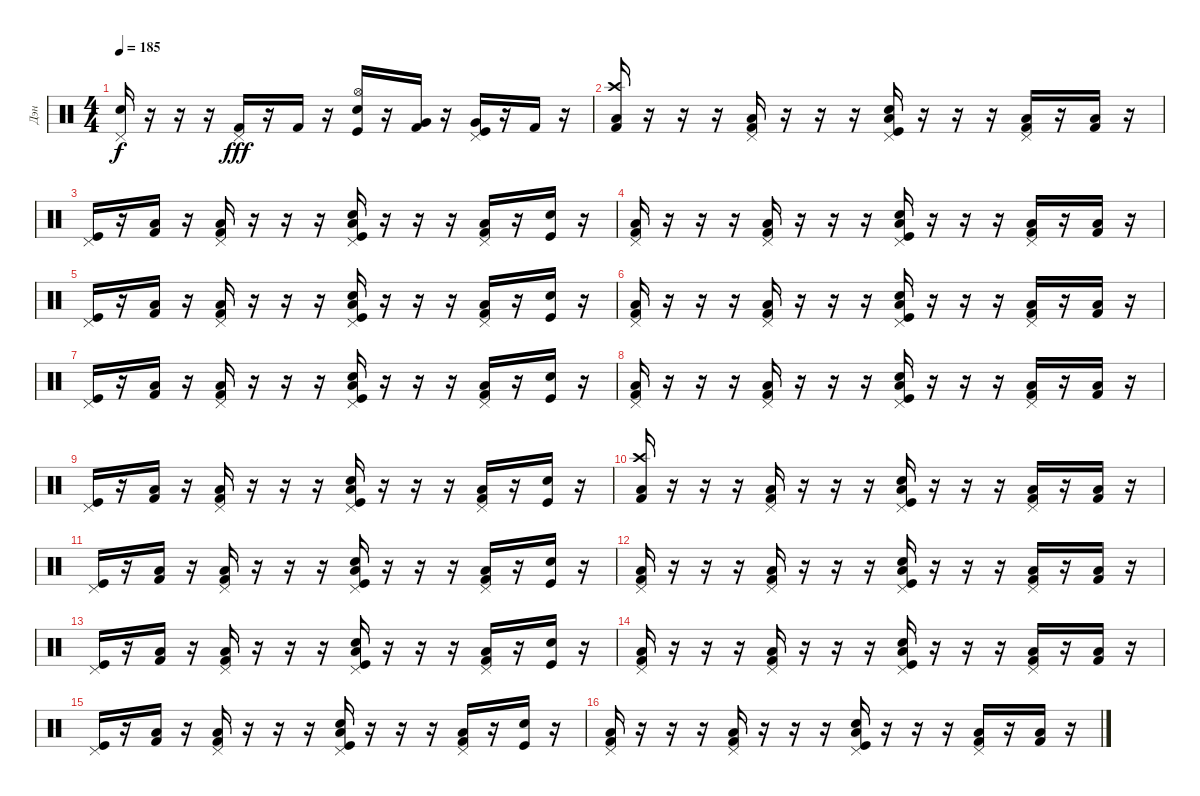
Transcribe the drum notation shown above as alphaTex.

\track ("Дэн" "Дэн") {instrument percussion}
\staff {score}
\articulation defaults
\ts (4 4)
\tempo 185
\clef neutral
\ks c
("Pedal Hi-Hat (hit)" "Electric Snare (hit)").16{dy f} r.16 r.16 r.16 ("Pedal Hi-Hat (hit)" "Kick (hit) 2").16{dy fff} r.16 "Kick (hit) 2".16 r.16 ("Hi-Hat (open)" "Electric Snare (hit)" "Kick (hit)").16 r.16 ("Very Low Tom (hit)" "Kick (hit) 2").16 r.16 ("Pedal Hi-Hat (hit)" "Very Low Tom (hit)" "Kick (hit)").16 r.16 "Kick (hit) 2".16 r.16 |
("Crash high (hit)" "Low Floor Tom (hit)" "Kick (hit) 2").16 r.16 r.16 r.16 ("Pedal Hi-Hat (hit)" "Low Floor Tom (hit)" "Kick (hit) 2").16 r.16 r.16 r.16 ("Pedal Hi-Hat (hit)" "Electric Snare (hit)" "Low Floor Tom (hit)" "Kick (hit)").16 r.16 r.16 r.16 ("Pedal Hi-Hat (hit)" "Low Floor Tom (hit)" "Kick (hit) 2").16 r.16 ("Low Floor Tom (hit)" "Kick (hit) 2").16 r.16 |
("Pedal Hi-Hat (hit)" "Kick (hit)").16 r.16 ("Low Floor Tom (hit)" "Kick (hit) 2").16 r.16 ("Pedal Hi-Hat (hit)" "Low Floor Tom (hit)" "Kick (hit) 2").16 r.16 r.16 r.16 ("Pedal Hi-Hat (hit)" "Electric Snare (hit)" "Low Floor Tom (hit)" "Kick (hit)").16 r.16 r.16 r.16 ("Pedal Hi-Hat (hit)" "Low Floor Tom (hit)" "Kick (hit) 2").16 r.16 ("Electric Snare (hit)" "Kick (hit)").16 r.16 |
("Pedal Hi-Hat (hit)" "Low Floor Tom (hit)" "Kick (hit) 2").16 r.16 r.16 r.16 ("Pedal Hi-Hat (hit)" "Low Floor Tom (hit)" "Kick (hit) 2").16 r.16 r.16 r.16 ("Pedal Hi-Hat (hit)" "Electric Snare (hit)" "Low Floor Tom (hit)" "Kick (hit)").16 r.16 r.16 r.16 ("Pedal Hi-Hat (hit)" "Low Floor Tom (hit)" "Kick (hit) 2").16 r.16 ("Low Floor Tom (hit)" "Kick (hit) 2").16 r.16 |
("Pedal Hi-Hat (hit)" "Kick (hit)").16 r.16 ("Low Floor Tom (hit)" "Kick (hit) 2").16 r.16 ("Pedal Hi-Hat (hit)" "Low Floor Tom (hit)" "Kick (hit) 2").16 r.16 r.16 r.16 ("Pedal Hi-Hat (hit)" "Electric Snare (hit)" "Low Floor Tom (hit)" "Kick (hit)").16 r.16 r.16 r.16 ("Pedal Hi-Hat (hit)" "Low Floor Tom (hit)" "Kick (hit) 2").16 r.16 ("Electric Snare (hit)" "Kick (hit)").16 r.16 |
("Pedal Hi-Hat (hit)" "Low Floor Tom (hit)" "Kick (hit) 2").16 r.16 r.16 r.16 ("Pedal Hi-Hat (hit)" "Low Floor Tom (hit)" "Kick (hit) 2").16 r.16 r.16 r.16 ("Pedal Hi-Hat (hit)" "Electric Snare (hit)" "Low Floor Tom (hit)" "Kick (hit)").16 r.16 r.16 r.16 ("Pedal Hi-Hat (hit)" "Low Floor Tom (hit)" "Kick (hit) 2").16 r.16 ("Low Floor Tom (hit)" "Kick (hit) 2").16 r.16 |
("Pedal Hi-Hat (hit)" "Kick (hit)").16 r.16 ("Low Floor Tom (hit)" "Kick (hit) 2").16 r.16 ("Pedal Hi-Hat (hit)" "Low Floor Tom (hit)" "Kick (hit) 2").16 r.16 r.16 r.16 ("Pedal Hi-Hat (hit)" "Electric Snare (hit)" "Low Floor Tom (hit)" "Kick (hit)").16 r.16 r.16 r.16 ("Pedal Hi-Hat (hit)" "Low Floor Tom (hit)" "Kick (hit) 2").16 r.16 ("Electric Snare (hit)" "Kick (hit)").16 r.16 |
("Pedal Hi-Hat (hit)" "Low Floor Tom (hit)" "Kick (hit) 2").16 r.16 r.16 r.16 ("Pedal Hi-Hat (hit)" "Low Floor Tom (hit)" "Kick (hit) 2").16 r.16 r.16 r.16 ("Pedal Hi-Hat (hit)" "Electric Snare (hit)" "Low Floor Tom (hit)" "Kick (hit)").16 r.16 r.16 r.16 ("Pedal Hi-Hat (hit)" "Low Floor Tom (hit)" "Kick (hit) 2").16 r.16 ("Low Floor Tom (hit)" "Kick (hit) 2").16 r.16 |
("Pedal Hi-Hat (hit)" "Kick (hit)").16 r.16 ("Low Floor Tom (hit)" "Kick (hit) 2").16 r.16 ("Pedal Hi-Hat (hit)" "Low Floor Tom (hit)" "Kick (hit) 2").16 r.16 r.16 r.16 ("Pedal Hi-Hat (hit)" "Electric Snare (hit)" "Low Floor Tom (hit)" "Kick (hit)").16 r.16 r.16 r.16 ("Pedal Hi-Hat (hit)" "Low Floor Tom (hit)" "Kick (hit) 2").16 r.16 ("Electric Snare (hit)" "Kick (hit)").16 r.16 |
("Crash high (hit)" "Low Floor Tom (hit)" "Kick (hit) 2").16 r.16 r.16 r.16 ("Pedal Hi-Hat (hit)" "Low Floor Tom (hit)" "Kick (hit) 2").16 r.16 r.16 r.16 ("Pedal Hi-Hat (hit)" "Electric Snare (hit)" "Low Floor Tom (hit)" "Kick (hit)").16 r.16 r.16 r.16 ("Pedal Hi-Hat (hit)" "Low Floor Tom (hit)" "Kick (hit) 2").16 r.16 ("Low Floor Tom (hit)" "Kick (hit) 2").16 r.16 |
("Pedal Hi-Hat (hit)" "Kick (hit)").16 r.16 ("Low Floor Tom (hit)" "Kick (hit) 2").16 r.16 ("Pedal Hi-Hat (hit)" "Low Floor Tom (hit)" "Kick (hit) 2").16 r.16 r.16 r.16 ("Pedal Hi-Hat (hit)" "Electric Snare (hit)" "Low Floor Tom (hit)" "Kick (hit)").16 r.16 r.16 r.16 ("Pedal Hi-Hat (hit)" "Low Floor Tom (hit)" "Kick (hit) 2").16 r.16 ("Electric Snare (hit)" "Kick (hit)").16 r.16 |
("Pedal Hi-Hat (hit)" "Low Floor Tom (hit)" "Kick (hit) 2").16 r.16 r.16 r.16 ("Pedal Hi-Hat (hit)" "Low Floor Tom (hit)" "Kick (hit) 2").16 r.16 r.16 r.16 ("Pedal Hi-Hat (hit)" "Electric Snare (hit)" "Low Floor Tom (hit)" "Kick (hit)").16 r.16 r.16 r.16 ("Pedal Hi-Hat (hit)" "Low Floor Tom (hit)" "Kick (hit) 2").16 r.16 ("Low Floor Tom (hit)" "Kick (hit) 2").16 r.16 |
("Pedal Hi-Hat (hit)" "Kick (hit)").16 r.16 ("Low Floor Tom (hit)" "Kick (hit) 2").16 r.16 ("Pedal Hi-Hat (hit)" "Low Floor Tom (hit)" "Kick (hit) 2").16 r.16 r.16 r.16 ("Pedal Hi-Hat (hit)" "Electric Snare (hit)" "Low Floor Tom (hit)" "Kick (hit)").16 r.16 r.16 r.16 ("Pedal Hi-Hat (hit)" "Low Floor Tom (hit)" "Kick (hit) 2").16 r.16 ("Electric Snare (hit)" "Kick (hit)").16 r.16 |
("Pedal Hi-Hat (hit)" "Low Floor Tom (hit)" "Kick (hit) 2").16 r.16 r.16 r.16 ("Pedal Hi-Hat (hit)" "Low Floor Tom (hit)" "Kick (hit) 2").16 r.16 r.16 r.16 ("Pedal Hi-Hat (hit)" "Electric Snare (hit)" "Low Floor Tom (hit)" "Kick (hit)").16 r.16 r.16 r.16 ("Pedal Hi-Hat (hit)" "Low Floor Tom (hit)" "Kick (hit) 2").16 r.16 ("Low Floor Tom (hit)" "Kick (hit) 2").16 r.16 |
("Pedal Hi-Hat (hit)" "Kick (hit)").16 r.16 ("Low Floor Tom (hit)" "Kick (hit) 2").16 r.16 ("Pedal Hi-Hat (hit)" "Low Floor Tom (hit)" "Kick (hit) 2").16 r.16 r.16 r.16 ("Pedal Hi-Hat (hit)" "Electric Snare (hit)" "Low Floor Tom (hit)" "Kick (hit)").16 r.16 r.16 r.16 ("Pedal Hi-Hat (hit)" "Low Floor Tom (hit)" "Kick (hit) 2").16 r.16 ("Electric Snare (hit)" "Kick (hit)").16 r.16 |
("Pedal Hi-Hat (hit)" "Low Floor Tom (hit)" "Kick (hit) 2").16 r.16 r.16 r.16 ("Pedal Hi-Hat (hit)" "Low Floor Tom (hit)" "Kick (hit) 2").16 r.16 r.16 r.16 ("Pedal Hi-Hat (hit)" "Electric Snare (hit)" "Low Floor Tom (hit)" "Kick (hit)").16 r.16 r.16 r.16 ("Pedal Hi-Hat (hit)" "Low Floor Tom (hit)" "Kick (hit) 2").16 r.16 ("Low Floor Tom (hit)" "Kick (hit) 2").16 r.16
